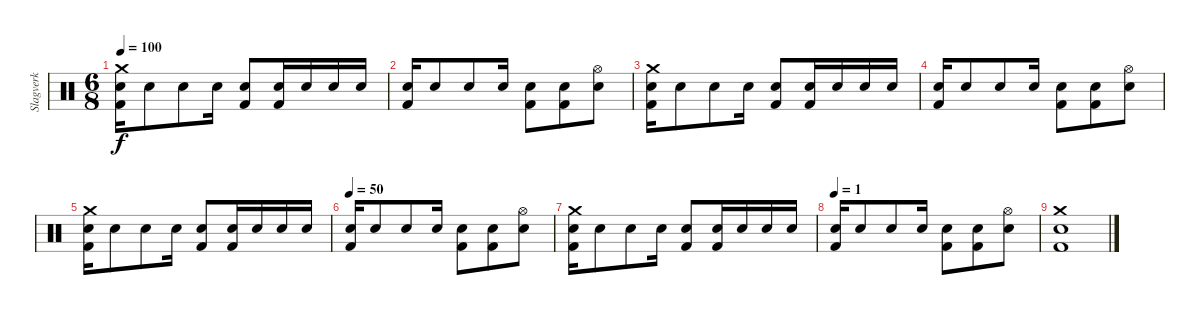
\track ("Slagverk" "Slagverk") {instrument percussion}
\staff {score}
\articulation defaults
\ts (6 8)
\tempo 100
\clef neutral
\ks c
("Crash medium (hit)" "Electric Snare (hit)" "Kick (hit) 2").16{dy f} "Electric Snare (hit)".8 "Electric Snare (hit)".8 "Electric Snare (hit)".16 ("Electric Snare (hit)" "Kick (hit) 2").8 ("Electric Snare (hit)" "Kick (hit) 2").16 "Electric Snare (hit)".16 "Electric Snare (hit)".16 "Electric Snare (hit)".16 |
("Electric Snare (hit)" "Kick (hit) 2").16 "Electric Snare (hit)".8 "Electric Snare (hit)".8 "Electric Snare (hit)".16 ("Electric Snare (hit)" "Kick (hit) 2").8 ("Electric Snare (hit)" "Kick (hit) 2").8 ("Hi-Hat (open)" "Electric Snare (hit)").8 |
("Crash medium (hit)" "Electric Snare (hit)" "Kick (hit) 2").16 "Electric Snare (hit)".8 "Electric Snare (hit)".8 "Electric Snare (hit)".16 ("Electric Snare (hit)" "Kick (hit) 2").8 ("Electric Snare (hit)" "Kick (hit) 2").16 "Electric Snare (hit)".16 "Electric Snare (hit)".16 "Electric Snare (hit)".16 |
("Electric Snare (hit)" "Kick (hit) 2").16 "Electric Snare (hit)".8 "Electric Snare (hit)".8 "Electric Snare (hit)".16 ("Electric Snare (hit)" "Kick (hit) 2").8 ("Electric Snare (hit)" "Kick (hit) 2").8 ("Hi-Hat (open)" "Electric Snare (hit)").8 |
("Crash medium (hit)" "Electric Snare (hit)" "Kick (hit) 2").16 "Electric Snare (hit)".8 "Electric Snare (hit)".8 "Electric Snare (hit)".16 ("Electric Snare (hit)" "Kick (hit) 2").8 ("Electric Snare (hit)" "Kick (hit) 2").16 "Electric Snare (hit)".16 "Electric Snare (hit)".16 "Electric Snare (hit)".16 |
\tempo 50
("Electric Snare (hit)" "Kick (hit) 2").16 "Electric Snare (hit)".8 "Electric Snare (hit)".8 "Electric Snare (hit)".16 ("Electric Snare (hit)" "Kick (hit) 2").8 ("Electric Snare (hit)" "Kick (hit) 2").8 ("Hi-Hat (open)" "Electric Snare (hit)").8 |
("Crash medium (hit)" "Electric Snare (hit)" "Kick (hit) 2").16 "Electric Snare (hit)".8 "Electric Snare (hit)".8 "Electric Snare (hit)".16 ("Electric Snare (hit)" "Kick (hit) 2").8 ("Electric Snare (hit)" "Kick (hit) 2").16 "Electric Snare (hit)".16 "Electric Snare (hit)".16 "Electric Snare (hit)".16 |
\tempo 1
("Electric Snare (hit)" "Kick (hit) 2").16 "Electric Snare (hit)".8 "Electric Snare (hit)".8 "Electric Snare (hit)".16 ("Electric Snare (hit)" "Kick (hit) 2").8 ("Electric Snare (hit)" "Kick (hit) 2").8 ("Hi-Hat (open)" "Electric Snare (hit)").8 |
("Crash medium (hit)" "Electric Snare (hit)" "Kick (hit) 2").1
